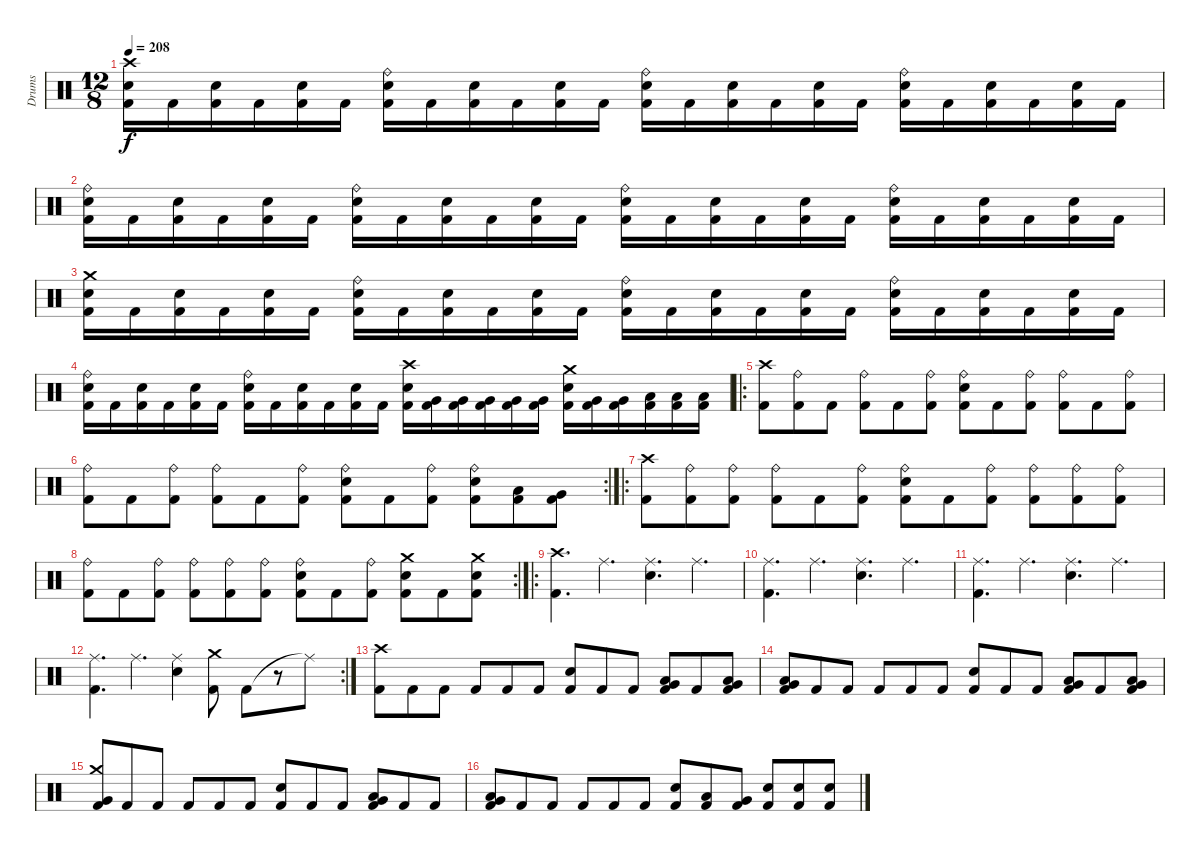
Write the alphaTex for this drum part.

\track ("Drums" "Drums") {instrument percussion}
\staff {score}
\articulation defaults
\ts (12 8)
\tempo 208
\clef neutral
\ks c
("Crash high (hit)" "Electric Snare (hit)" "Kick (hit) 2").16{dy f} "Kick (hit) 2".16 ("Electric Snare (hit)" "Kick (hit) 2").16 "Kick (hit) 2".16 ("Electric Snare (hit)" "Kick (hit) 2").16 "Kick (hit) 2".16 ("Ride (bell)" "Electric Snare (hit)" "Kick (hit) 2").16 "Kick (hit) 2".16 ("Electric Snare (hit)" "Kick (hit) 2").16 "Kick (hit) 2".16 ("Electric Snare (hit)" "Kick (hit) 2").16 "Kick (hit) 2".16 ("Ride (bell)" "Electric Snare (hit)" "Kick (hit) 2").16 "Kick (hit) 2".16 ("Electric Snare (hit)" "Kick (hit) 2").16 "Kick (hit) 2".16 ("Electric Snare (hit)" "Kick (hit) 2").16 "Kick (hit) 2".16 ("Ride (bell)" "Electric Snare (hit)" "Kick (hit) 2").16 "Kick (hit) 2".16 ("Electric Snare (hit)" "Kick (hit) 2").16 "Kick (hit) 2".16 ("Electric Snare (hit)" "Kick (hit) 2").16 "Kick (hit) 2".16 |
("Ride (bell)" "Electric Snare (hit)" "Kick (hit) 2").16 "Kick (hit) 2".16 ("Electric Snare (hit)" "Kick (hit) 2").16 "Kick (hit) 2".16 ("Electric Snare (hit)" "Kick (hit) 2").16 "Kick (hit) 2".16 ("Ride (bell)" "Electric Snare (hit)" "Kick (hit) 2").16 "Kick (hit) 2".16 ("Electric Snare (hit)" "Kick (hit) 2").16 "Kick (hit) 2".16 ("Electric Snare (hit)" "Kick (hit) 2").16 "Kick (hit) 2".16 ("Ride (bell)" "Electric Snare (hit)" "Kick (hit) 2").16 "Kick (hit) 2".16 ("Electric Snare (hit)" "Kick (hit) 2").16 "Kick (hit) 2".16 ("Electric Snare (hit)" "Kick (hit) 2").16 "Kick (hit) 2".16 ("Ride (bell)" "Electric Snare (hit)" "Kick (hit) 2").16 "Kick (hit) 2".16 ("Electric Snare (hit)" "Kick (hit) 2").16 "Kick (hit) 2".16 ("Electric Snare (hit)" "Kick (hit) 2").16 "Kick (hit) 2".16 |
("Crash medium (hit)" "Electric Snare (hit)" "Kick (hit) 2").16 "Kick (hit) 2".16 ("Electric Snare (hit)" "Kick (hit) 2").16 "Kick (hit) 2".16 ("Electric Snare (hit)" "Kick (hit) 2").16 "Kick (hit) 2".16 ("Ride (bell)" "Electric Snare (hit)" "Kick (hit) 2").16 "Kick (hit) 2".16 ("Electric Snare (hit)" "Kick (hit) 2").16 "Kick (hit) 2".16 ("Electric Snare (hit)" "Kick (hit) 2").16 "Kick (hit) 2".16 ("Ride (bell)" "Electric Snare (hit)" "Kick (hit) 2").16 "Kick (hit) 2".16 ("Electric Snare (hit)" "Kick (hit) 2").16 "Kick (hit) 2".16 ("Electric Snare (hit)" "Kick (hit) 2").16 "Kick (hit) 2".16 ("Ride (bell)" "Electric Snare (hit)" "Kick (hit) 2").16 "Kick (hit) 2".16 ("Electric Snare (hit)" "Kick (hit) 2").16 "Kick (hit) 2".16 ("Electric Snare (hit)" "Kick (hit) 2").16 "Kick (hit) 2".16 |
("Ride (bell)" "Electric Snare (hit)" "Kick (hit) 2").16 "Kick (hit) 2".16 ("Electric Snare (hit)" "Kick (hit) 2").16 "Kick (hit) 2".16 ("Electric Snare (hit)" "Kick (hit) 2").16 "Kick (hit) 2".16 ("Ride (bell)" "Electric Snare (hit)" "Kick (hit) 2").16 "Kick (hit) 2".16 ("Electric Snare (hit)" "Kick (hit) 2").16 "Kick (hit) 2".16 ("Electric Snare (hit)" "Kick (hit) 2").16 "Kick (hit) 2".16 ("Crash high (hit)" "Electric Snare (hit)" "Kick (hit) 2").16 ("Very Low Tom (hit)" "Kick (hit) 2").16 ("Very Low Tom (hit)" "Kick (hit) 2").16 ("Very Low Tom (hit)" "Kick (hit) 2").16 ("Very Low Tom (hit)" "Kick (hit) 2").16 ("Very Low Tom (hit)" "Kick (hit) 2").16 ("Crash medium (hit)" "Electric Snare (hit)" "Kick (hit) 2").16 ("Very Low Tom (hit)" "Kick (hit) 2").16 ("Very Low Tom (hit)" "Kick (hit) 2").16 ("Low Floor Tom (hit)" "Kick (hit) 2").16 ("Low Floor Tom (hit)" "Kick (hit) 2").16 ("Low Floor Tom (hit)" "Kick (hit) 2").16 |
\ro
("Crash high (hit)" "Kick (hit) 2").8 ("Ride (bell)" "Kick (hit) 2").8 "Kick (hit) 2".8 ("Ride (bell)" "Kick (hit) 2").8 "Kick (hit) 2".8 ("Ride (bell)" "Kick (hit) 2").8 ("Ride (bell)" "Electric Snare (hit)" "Kick (hit) 2").8 "Kick (hit) 2".8 ("Ride (bell)" "Kick (hit) 2").8 ("Ride (bell)" "Kick (hit) 2").8 "Kick (hit) 2".8 ("Ride (bell)" "Kick (hit) 2").8 |
\rc 2
("Ride (bell)" "Kick (hit) 2").8 "Kick (hit) 2".8 ("Ride (bell)" "Kick (hit) 2").8 ("Ride (bell)" "Kick (hit) 2").8 "Kick (hit) 2".8 ("Ride (bell)" "Kick (hit) 2").8 ("Ride (bell)" "Electric Snare (hit)" "Kick (hit) 2").8 "Kick (hit) 2".8 ("Ride (bell)" "Kick (hit) 2").8 ("Ride (bell)" "Electric Snare (hit)" "Kick (hit) 2").8 ("Low Tom (hit)" "Kick (hit) 2").8 ("Very Low Tom (hit)" "Kick (hit) 2").8 |
\ro
("Crash high (hit)" "Kick (hit) 2").8 ("Ride (bell)" "Kick (hit) 2").8 ("Ride (bell)" "Kick (hit) 2").8 ("Ride (bell)" "Kick (hit) 2").8 "Kick (hit) 2".8 ("Ride (bell)" "Kick (hit) 2").8 ("Ride (bell)" "Electric Snare (hit)" "Kick (hit) 2").8 "Kick (hit) 2".8 ("Ride (bell)" "Kick (hit) 2").8 ("Ride (bell)" "Kick (hit) 2").8 ("Ride (bell)" "Kick (hit) 2").8 ("Ride (bell)" "Kick (hit) 2").8 |
\rc 2
("Ride (bell)" "Kick (hit) 2").8 "Kick (hit) 2".8 ("Ride (bell)" "Kick (hit) 2").8 ("Ride (bell)" "Kick (hit) 2").8 ("Ride (bell)" "Kick (hit) 2").8 ("Ride (bell)" "Kick (hit) 2").8 ("Ride (bell)" "Electric Snare (hit)" "Kick (hit) 2").8 "Kick (hit) 2".8 ("Ride (bell)" "Kick (hit) 2").8 ("Crash medium (hit)" "Electric Snare (hit)" "Kick (hit) 2").8 "Kick (hit) 2".8 ("Crash medium (hit)" "Electric Snare (hit)" "Kick (hit) 2").8 |
\ro
("Crash high (hit)" "Kick (hit) 2").4{d} "Ride (middle)".4{d} ("Ride (middle)" "Electric Snare (hit)").4{d} "Ride (middle)".4{d} |
("Ride (middle)" "Kick (hit) 2").4{d} "Ride (middle)".4{d} ("Ride (middle)" "Electric Snare (hit)").4{d} "Ride (middle)".4{d} |
("Ride (middle)" "Kick (hit) 2").4{d} "Ride (middle)".4{d} ("Ride (middle)" "Electric Snare (hit)").4{d} "Ride (middle)".4{d} |
\rc 2
("Ride (middle)" "Kick (hit) 2").4{d} "Ride (middle)".4{d} ("Ride (middle)" "Electric Snare (hit)").4 ("Crash medium (hit)" "Kick (hit) 2").8 "Kick (hit) 2".8 r.8 "Ride (middle)"{t}.8 |
("Crash high (hit)" "Kick (hit) 2").8 "Kick (hit) 2".8 "Kick (hit) 2".8 "Kick (hit) 2".8 "Kick (hit) 2".8 "Kick (hit) 2".8 ("Electric Snare (hit)" "Kick (hit) 2").8 "Kick (hit) 2".8 "Kick (hit) 2".8 ("Low Tom (hit)" "Very Low Tom (hit)" "Kick (hit) 2").8 "Kick (hit) 2".8 ("Low Tom (hit)" "Very Low Tom (hit)" "Kick (hit) 2").8 |
("Very Low Tom (hit)" "Low Floor Tom (hit)" "Kick (hit) 2").8 "Kick (hit) 2".8 "Kick (hit) 2".8 "Kick (hit) 2".8 "Kick (hit) 2".8 "Kick (hit) 2".8 ("Electric Snare (hit)" "Kick (hit) 2").8 "Kick (hit) 2".8 "Kick (hit) 2".8 ("Low Tom (hit)" "Very Low Tom (hit)" "Kick (hit) 2").8 "Kick (hit) 2".8 ("Low Tom (hit)" "Very Low Tom (hit)" "Kick (hit) 2").8 |
("Crash medium (hit)" "Very Low Tom (hit)" "Kick (hit) 2").8 "Kick (hit) 2".8 "Kick (hit) 2".8 "Kick (hit) 2".8 "Kick (hit) 2".8 "Kick (hit) 2".8 ("Electric Snare (hit)" "Kick (hit) 2").8 "Kick (hit) 2".8 "Kick (hit) 2".8 ("Low Tom (hit)" "Very Low Tom (hit)" "Kick (hit) 2").8 "Kick (hit) 2".8 "Kick (hit) 2".8 |
("Very Low Tom (hit)" "Low Floor Tom (hit)" "Kick (hit) 2").8 "Kick (hit) 2".8 "Kick (hit) 2".8 "Kick (hit) 2".8 "Kick (hit) 2".8 "Kick (hit) 2".8 ("Electric Snare (hit)" "Kick (hit) 2").8 ("Low Tom (hit)" "Kick (hit) 2").8 ("Very Low Tom (hit)" "Kick (hit) 2").8 ("Electric Snare (hit)" "Kick (hit) 2").8 ("Electric Snare (hit)" "Kick (hit) 2").8 ("Electric Snare (hit)" "Kick (hit) 2").8
